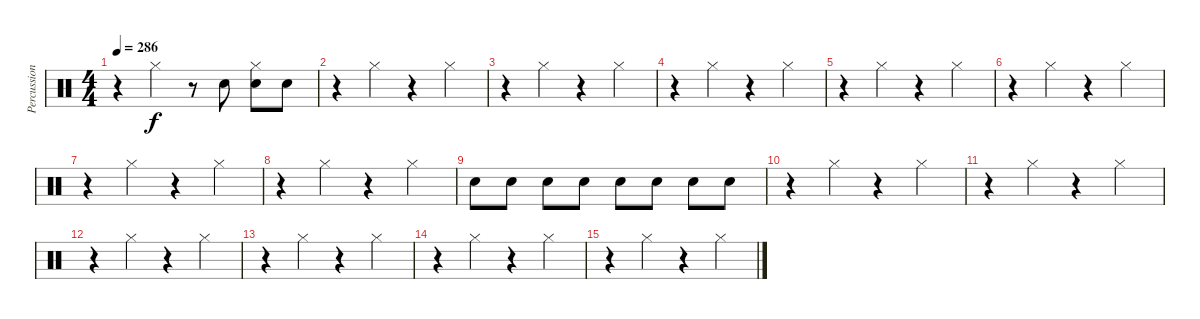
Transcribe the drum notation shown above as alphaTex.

\track ("Percussions" "Percussion") {instrument percussion}
\staff {score}
\articulation defaults
\ts (4 4)
\tempo 286
\clef neutral
\ks c
r.4{dy f} "Hi-Hat (closed)".4 r.8 "Electric Snare (hit)".8 ("Hi-Hat (closed)" "Electric Snare (hit)").8 "Electric Snare (hit)".8 |
r.4 "Hi-Hat (closed)".4 r.4 "Hi-Hat (closed)".4 |
r.4 "Hi-Hat (closed)".4 r.4 "Hi-Hat (closed)".4 |
r.4 "Hi-Hat (closed)".4 r.4 "Hi-Hat (closed)".4 |
r.4 "Hi-Hat (closed)".4 r.4 "Hi-Hat (closed)".4 |
r.4 "Hi-Hat (closed)".4 r.4 "Hi-Hat (closed)".4 |
r.4 "Hi-Hat (closed)".4 r.4 "Hi-Hat (closed)".4 |
r.4 "Hi-Hat (closed)".4 r.4 "Hi-Hat (closed)".4 |
"Electric Snare (hit)".8 "Electric Snare (hit)".8 "Electric Snare (hit)".8 "Electric Snare (hit)".8 "Electric Snare (hit)".8 "Electric Snare (hit)".8 "Electric Snare (hit)".8 "Electric Snare (hit)".8 |
r.4 "Hi-Hat (closed)".4 r.4 "Hi-Hat (closed)".4 |
r.4 "Hi-Hat (closed)".4 r.4 "Hi-Hat (closed)".4 |
r.4 "Hi-Hat (closed)".4 r.4 "Hi-Hat (closed)".4 |
r.4 "Hi-Hat (closed)".4 r.4 "Hi-Hat (closed)".4 |
r.4 "Hi-Hat (closed)".4 r.4 "Hi-Hat (closed)".4 |
r.4 "Hi-Hat (closed)".4 r.4 "Hi-Hat (closed)".4
